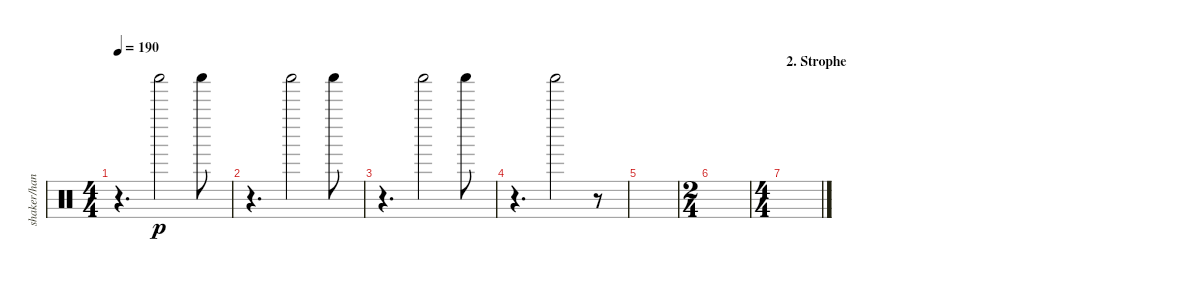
\track ("shaker/hand clap" "shaker/han") {instrument percussion}
\staff {score}
\articulation defaults
\ts (4 4)
\tempo 190
\clef neutral
\ks c
r.4{d dy p} "Shaker (hit)".2 "Shaker (hit)".8 |
r.4{d} "Shaker (hit)".2 "Shaker (hit)".8 |
r.4{d} "Shaker (hit)".2 "Shaker (hit)".8 |
r.4{d} "Shaker (hit)".2 r.8 |
|
\ts (2 4)
\section ("" "")
|
\ts (4 4)
\section ("" "2. Strophe")
